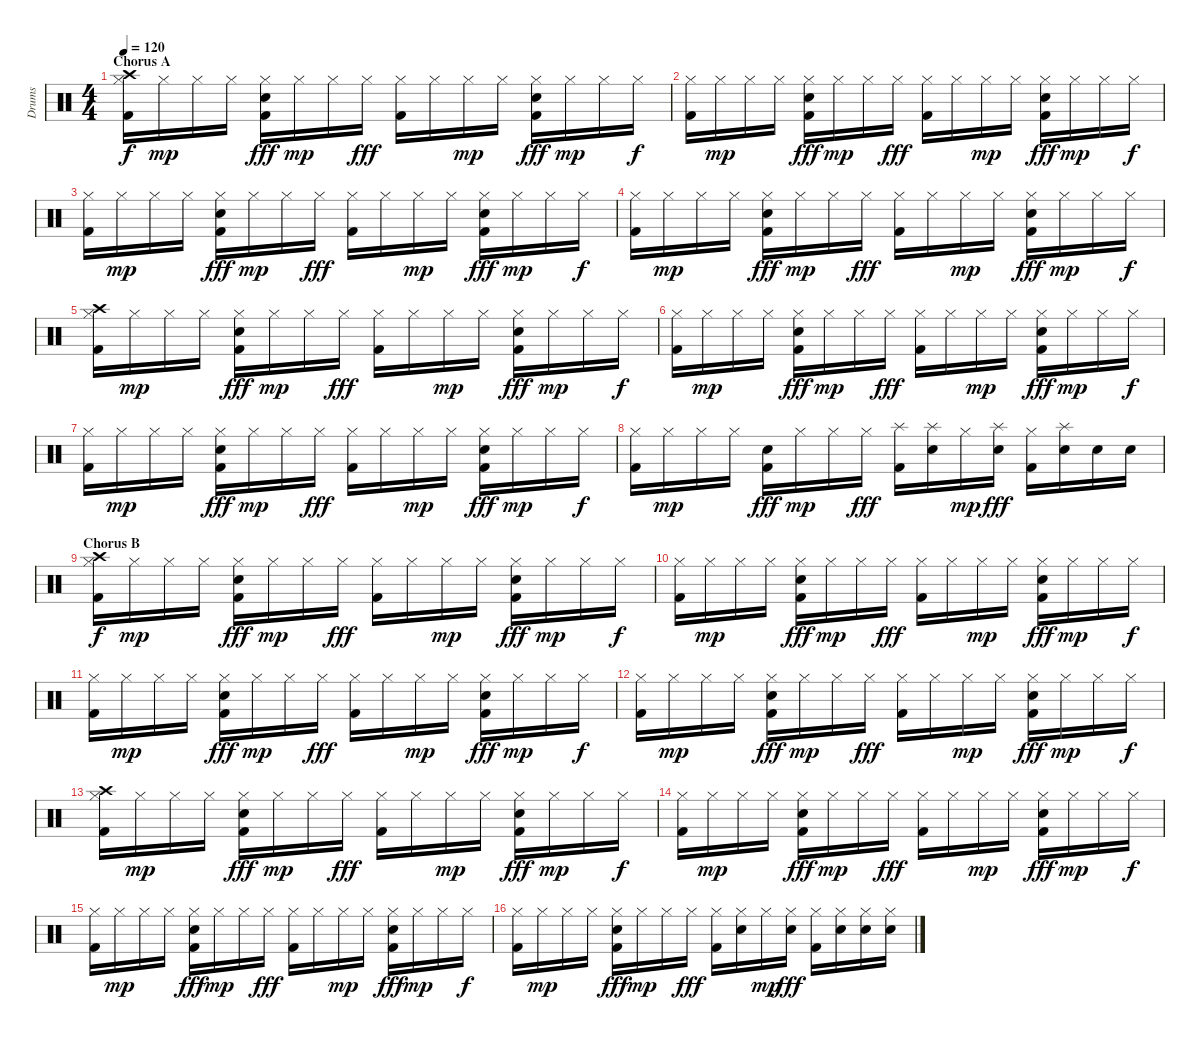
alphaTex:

\track ("Drums" "Drums") {instrument percussion}
\staff {score}
\articulation defaults
\ts (4 4)
\section ("" "Chorus A")
\tempo 120
\clef neutral
\ks c
("Hi-Hat (closed)" "Crash high (hit)" "Kick (hit) 2").16{dy f} "Hi-Hat (closed)".16{dy mp} "Hi-Hat (closed)".16 "Hi-Hat (closed)".16 ("Hi-Hat (closed)" "Snare (hit) 2" "Kick (hit) 2").16{dy fff} "Hi-Hat (closed)".16{dy mp} "Hi-Hat (closed)".16 "Hi-Hat (closed)".16{dy fff} ("Hi-Hat (closed)" "Kick (hit) 2").16 "Hi-Hat (closed)".16 "Hi-Hat (closed)".16{dy mp} "Hi-Hat (closed)".16 ("Hi-Hat (closed)" "Snare (hit) 2" "Kick (hit) 2").16{dy fff} "Hi-Hat (closed)".16{dy mp} "Hi-Hat (closed)".16 "Hi-Hat (closed)".16{dy f} |
("Hi-Hat (closed)" "Kick (hit) 2").16 "Hi-Hat (closed)".16{dy mp} "Hi-Hat (closed)".16 "Hi-Hat (closed)".16 ("Hi-Hat (closed)" "Snare (hit) 2" "Kick (hit) 2").16{dy fff} "Hi-Hat (closed)".16{dy mp} "Hi-Hat (closed)".16 "Hi-Hat (closed)".16{dy fff} ("Hi-Hat (closed)" "Kick (hit) 2").16 "Hi-Hat (closed)".16 "Hi-Hat (closed)".16{dy mp} "Hi-Hat (closed)".16 ("Hi-Hat (closed)" "Snare (hit) 2" "Kick (hit) 2").16{dy fff} "Hi-Hat (closed)".16{dy mp} "Hi-Hat (closed)".16 "Hi-Hat (closed)".16{dy f} |
("Hi-Hat (closed)" "Kick (hit) 2").16 "Hi-Hat (closed)".16{dy mp} "Hi-Hat (closed)".16 "Hi-Hat (closed)".16 ("Hi-Hat (closed)" "Snare (hit) 2" "Kick (hit) 2").16{dy fff} "Hi-Hat (closed)".16{dy mp} "Hi-Hat (closed)".16 "Hi-Hat (closed)".16{dy fff} ("Hi-Hat (closed)" "Kick (hit) 2").16 "Hi-Hat (closed)".16 "Hi-Hat (closed)".16{dy mp} "Hi-Hat (closed)".16 ("Hi-Hat (closed)" "Snare (hit) 2" "Kick (hit) 2").16{dy fff} "Hi-Hat (closed)".16{dy mp} "Hi-Hat (closed)".16 "Hi-Hat (closed)".16{dy f} |
("Hi-Hat (closed)" "Kick (hit) 2").16 "Hi-Hat (closed)".16{dy mp} "Hi-Hat (closed)".16 "Hi-Hat (closed)".16 ("Hi-Hat (closed)" "Snare (hit) 2" "Kick (hit) 2").16{dy fff} "Hi-Hat (closed)".16{dy mp} "Hi-Hat (closed)".16 "Hi-Hat (closed)".16{dy fff} ("Hi-Hat (closed)" "Kick (hit) 2").16 "Hi-Hat (closed)".16 "Hi-Hat (closed)".16{dy mp} "Hi-Hat (closed)".16 ("Hi-Hat (closed)" "Snare (hit) 2" "Kick (hit) 2").16{dy fff} "Hi-Hat (closed)".16{dy mp} "Hi-Hat (closed)".16 "Hi-Hat (closed)".16{dy f} |
("Hi-Hat (closed)" "Crash high (hit)" "Kick (hit) 2").16 "Hi-Hat (closed)".16{dy mp} "Hi-Hat (closed)".16 "Hi-Hat (closed)".16 ("Hi-Hat (closed)" "Snare (hit) 2" "Kick (hit) 2").16{dy fff} "Hi-Hat (closed)".16{dy mp} "Hi-Hat (closed)".16 "Hi-Hat (closed)".16{dy fff} ("Hi-Hat (closed)" "Kick (hit) 2").16 "Hi-Hat (closed)".16 "Hi-Hat (closed)".16{dy mp} "Hi-Hat (closed)".16 ("Hi-Hat (closed)" "Snare (hit) 2" "Kick (hit) 2").16{dy fff} "Hi-Hat (closed)".16{dy mp} "Hi-Hat (closed)".16 "Hi-Hat (closed)".16{dy f} |
("Hi-Hat (closed)" "Kick (hit) 2").16 "Hi-Hat (closed)".16{dy mp} "Hi-Hat (closed)".16 "Hi-Hat (closed)".16 ("Hi-Hat (closed)" "Snare (hit) 2" "Kick (hit) 2").16{dy fff} "Hi-Hat (closed)".16{dy mp} "Hi-Hat (closed)".16 "Hi-Hat (closed)".16{dy fff} ("Hi-Hat (closed)" "Kick (hit) 2").16 "Hi-Hat (closed)".16 "Hi-Hat (closed)".16{dy mp} "Hi-Hat (closed)".16 ("Hi-Hat (closed)" "Snare (hit) 2" "Kick (hit) 2").16{dy fff} "Hi-Hat (closed)".16{dy mp} "Hi-Hat (closed)".16 "Hi-Hat (closed)".16{dy f} |
("Hi-Hat (closed)" "Kick (hit) 2").16 "Hi-Hat (closed)".16{dy mp} "Hi-Hat (closed)".16 "Hi-Hat (closed)".16 ("Hi-Hat (closed)" "Snare (hit) 2" "Kick (hit) 2").16{dy fff} "Hi-Hat (closed)".16{dy mp} "Hi-Hat (closed)".16 "Hi-Hat (closed)".16{dy fff} ("Hi-Hat (closed)" "Kick (hit) 2").16 "Hi-Hat (closed)".16 "Hi-Hat (closed)".16{dy mp} "Hi-Hat (closed)".16 ("Hi-Hat (closed)" "Snare (hit) 2" "Kick (hit) 2").16{dy fff} "Hi-Hat (closed)".16{dy mp} "Hi-Hat (closed)".16 "Hi-Hat (closed)".16{dy f} |
("Hi-Hat (closed)" "Kick (hit) 2").16 "Hi-Hat (closed)".16{dy mp} "Hi-Hat (closed)".16 "Hi-Hat (closed)".16 ("Snare (hit) 2" "Kick (hit) 2").16{dy fff} "Hi-Hat (closed)".16{dy mp} "Hi-Hat (closed)".16 "Hi-Hat (closed)".16{dy fff} ("Splash (hit)" "Kick (hit) 2").16 ("Splash (hit)" "Snare (hit) 2").16 "Hi-Hat (closed)".16{dy mp} ("Splash (hit)" "Snare (hit) 2").16{dy fff} ("Hi-Hat (closed)" "Kick (hit) 2").16 ("Splash (hit)" "Snare (hit) 2").16 "Snare (hit) 2".16 "Snare (hit) 2".16 |
\section ("" "Chorus B")
("Hi-Hat (closed)" "Crash high (hit)" "Kick (hit) 2").16{dy f} "Hi-Hat (closed)".16{dy mp} "Hi-Hat (closed)".16 "Hi-Hat (closed)".16 ("Hi-Hat (closed)" "Snare (hit) 2" "Kick (hit) 2").16{dy fff} "Hi-Hat (closed)".16{dy mp} "Hi-Hat (closed)".16 "Hi-Hat (closed)".16{dy fff} ("Hi-Hat (closed)" "Kick (hit) 2").16 "Hi-Hat (closed)".16 "Hi-Hat (closed)".16{dy mp} "Hi-Hat (closed)".16 ("Hi-Hat (closed)" "Snare (hit) 2" "Kick (hit) 2").16{dy fff} "Hi-Hat (closed)".16{dy mp} "Hi-Hat (closed)".16 "Hi-Hat (closed)".16{dy f} |
("Hi-Hat (closed)" "Kick (hit) 2").16 "Hi-Hat (closed)".16{dy mp} "Hi-Hat (closed)".16 "Hi-Hat (closed)".16 ("Hi-Hat (closed)" "Snare (hit) 2" "Kick (hit) 2").16{dy fff} "Hi-Hat (closed)".16{dy mp} "Hi-Hat (closed)".16 "Hi-Hat (closed)".16{dy fff} ("Hi-Hat (closed)" "Kick (hit) 2").16 "Hi-Hat (closed)".16 "Hi-Hat (closed)".16{dy mp} "Hi-Hat (closed)".16 ("Hi-Hat (closed)" "Snare (hit) 2" "Kick (hit) 2").16{dy fff} "Hi-Hat (closed)".16{dy mp} "Hi-Hat (closed)".16 "Hi-Hat (closed)".16{dy f} |
("Hi-Hat (closed)" "Kick (hit) 2").16 "Hi-Hat (closed)".16{dy mp} "Hi-Hat (closed)".16 "Hi-Hat (closed)".16 ("Hi-Hat (closed)" "Snare (hit) 2" "Kick (hit) 2").16{dy fff} "Hi-Hat (closed)".16{dy mp} "Hi-Hat (closed)".16 "Hi-Hat (closed)".16{dy fff} ("Hi-Hat (closed)" "Kick (hit) 2").16 "Hi-Hat (closed)".16 "Hi-Hat (closed)".16{dy mp} "Hi-Hat (closed)".16 ("Hi-Hat (closed)" "Snare (hit) 2" "Kick (hit) 2").16{dy fff} "Hi-Hat (closed)".16{dy mp} "Hi-Hat (closed)".16 "Hi-Hat (closed)".16{dy f} |
("Hi-Hat (closed)" "Kick (hit) 2").16 "Hi-Hat (closed)".16{dy mp} "Hi-Hat (closed)".16 "Hi-Hat (closed)".16 ("Hi-Hat (closed)" "Snare (hit) 2" "Kick (hit) 2").16{dy fff} "Hi-Hat (closed)".16{dy mp} "Hi-Hat (closed)".16 "Hi-Hat (closed)".16{dy fff} ("Hi-Hat (closed)" "Kick (hit) 2").16 "Hi-Hat (closed)".16 "Hi-Hat (closed)".16{dy mp} "Hi-Hat (closed)".16 ("Hi-Hat (closed)" "Snare (hit) 2" "Kick (hit) 2").16{dy fff} "Hi-Hat (closed)".16{dy mp} "Hi-Hat (closed)".16 "Hi-Hat (closed)".16{dy f} |
("Hi-Hat (closed)" "Crash high (hit)" "Kick (hit) 2").16 "Hi-Hat (closed)".16{dy mp} "Hi-Hat (closed)".16 "Hi-Hat (closed)".16 ("Hi-Hat (closed)" "Snare (hit) 2" "Kick (hit) 2").16{dy fff} "Hi-Hat (closed)".16{dy mp} "Hi-Hat (closed)".16 "Hi-Hat (closed)".16{dy fff} ("Hi-Hat (closed)" "Kick (hit) 2").16 "Hi-Hat (closed)".16 "Hi-Hat (closed)".16{dy mp} "Hi-Hat (closed)".16 ("Hi-Hat (closed)" "Snare (hit) 2" "Kick (hit) 2").16{dy fff} "Hi-Hat (closed)".16{dy mp} "Hi-Hat (closed)".16 "Hi-Hat (closed)".16{dy f} |
("Hi-Hat (closed)" "Kick (hit) 2").16 "Hi-Hat (closed)".16{dy mp} "Hi-Hat (closed)".16 "Hi-Hat (closed)".16 ("Hi-Hat (closed)" "Snare (hit) 2" "Kick (hit) 2").16{dy fff} "Hi-Hat (closed)".16{dy mp} "Hi-Hat (closed)".16 "Hi-Hat (closed)".16{dy fff} ("Hi-Hat (closed)" "Kick (hit) 2").16 "Hi-Hat (closed)".16 "Hi-Hat (closed)".16{dy mp} "Hi-Hat (closed)".16 ("Hi-Hat (closed)" "Snare (hit) 2" "Kick (hit) 2").16{dy fff} "Hi-Hat (closed)".16{dy mp} "Hi-Hat (closed)".16 "Hi-Hat (closed)".16{dy f} |
("Hi-Hat (closed)" "Kick (hit) 2").16 "Hi-Hat (closed)".16{dy mp} "Hi-Hat (closed)".16 "Hi-Hat (closed)".16 ("Hi-Hat (closed)" "Snare (hit) 2" "Kick (hit) 2").16{dy fff} "Hi-Hat (closed)".16{dy mp} "Hi-Hat (closed)".16 "Hi-Hat (closed)".16{dy fff} ("Hi-Hat (closed)" "Kick (hit) 2").16 "Hi-Hat (closed)".16 "Hi-Hat (closed)".16{dy mp} "Hi-Hat (closed)".16 ("Hi-Hat (closed)" "Snare (hit) 2" "Kick (hit) 2").16{dy fff} "Hi-Hat (closed)".16{dy mp} "Hi-Hat (closed)".16 "Hi-Hat (closed)".16{dy f} |
("Hi-Hat (closed)" "Kick (hit) 2").16 "Hi-Hat (closed)".16{dy mp} "Hi-Hat (closed)".16 "Hi-Hat (closed)".16 ("Hi-Hat (closed)" "Snare (hit) 2" "Kick (hit) 2").16{dy fff} "Hi-Hat (closed)".16{dy mp} "Hi-Hat (closed)".16 "Hi-Hat (closed)".16{dy fff} ("Hi-Hat (closed)" "Kick (hit) 2").16 ("Hi-Hat (closed)" "Snare (hit) 2").16 "Hi-Hat (closed)".16{dy mp} ("Hi-Hat (closed)" "Snare (hit) 2").16{dy fff} ("Hi-Hat (closed)" "Kick (hit) 2").16 ("Hi-Hat (closed)" "Snare (hit) 2").16 ("Hi-Hat (closed)" "Snare (hit) 2").16 ("Hi-Hat (closed)" "Snare (hit) 2").16
